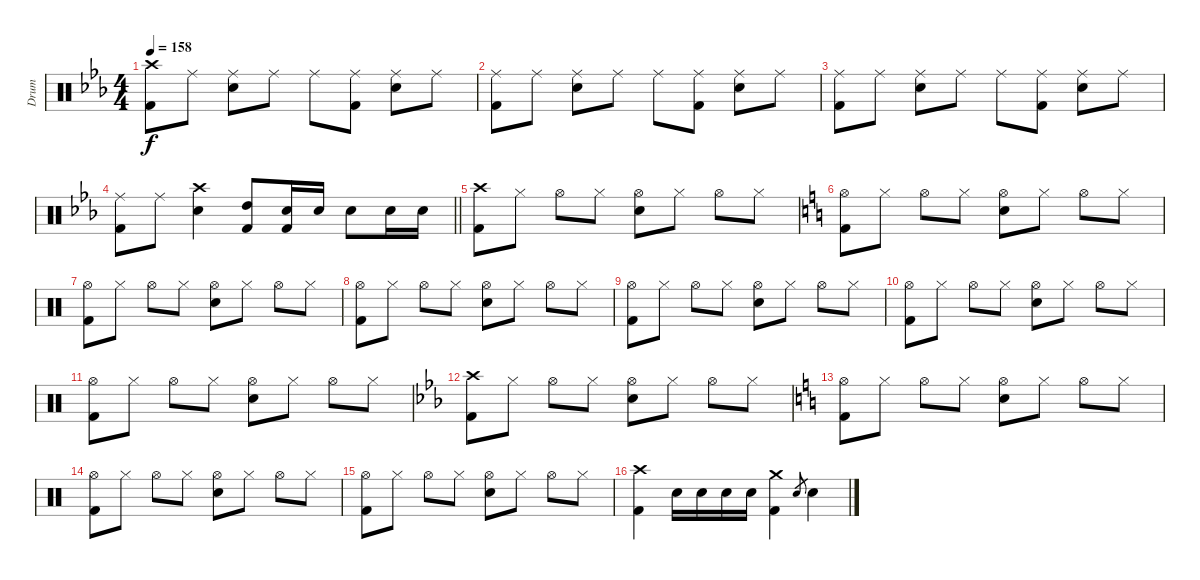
\track ("Drum" "Drum") {instrument percussion}
\staff {score}
\articulation defaults
\ts (4 4)
\tempo 158
\clef neutral
\ks eb
("Crash high (hit)" "Kick (hit) 2").8{dy f} "Ride (middle)".8 ("Ride (middle)" "Electric Snare (hit)").8 "Ride (middle)".8 "Ride (middle)".8 ("Ride (middle)" "Kick (hit) 2").8 ("Ride (middle)" "Electric Snare (hit)").8 "Ride (middle)".8 |
("Ride (middle)" "Kick (hit) 2").8 "Ride (middle)".8 ("Ride (middle)" "Electric Snare (hit)").8 "Ride (middle)".8 "Ride (middle)".8 ("Ride (middle)" "Kick (hit) 2").8 ("Ride (middle)" "Electric Snare (hit)").8 "Ride (middle)".8 |
("Ride (middle)" "Kick (hit) 2").8 "Ride (middle)".8 ("Ride (middle)" "Electric Snare (hit)").8 "Ride (middle)".8 "Ride (middle)".8 ("Ride (middle)" "Kick (hit) 2").8 ("Ride (middle)" "Electric Snare (hit)").8 "Ride (middle)".8 |
\barLineRight lightlight
("Ride (middle)" "Kick (hit) 2").8 "Ride (middle)".8 ("Crash high (hit)" "Electric Snare (hit)").4 ("High Tom (hit)" "Kick (hit) 2").8 ("Snare (hit) 2" "Kick (hit) 2").16 "Electric Snare (hit)".16 "Electric Snare (hit)".8 "Electric Snare (hit)".16 "Electric Snare (hit)".16 |
("Crash high (hit)" "Kick (hit) 2").8 "Hi-Hat (closed)".8 "Hi-Hat (open)".8 "Hi-Hat (closed)".8 ("Hi-Hat (open)" "Electric Snare (hit)").8 "Hi-Hat (closed)".8 "Hi-Hat (open)".8 "Hi-Hat (closed)".8 |
\ks c
("Hi-Hat (open)" "Kick (hit) 2").8 "Hi-Hat (closed)".8 "Hi-Hat (open)".8 "Hi-Hat (closed)".8 ("Hi-Hat (open)" "Electric Snare (hit)").8 "Hi-Hat (closed)".8 "Hi-Hat (open)".8 "Hi-Hat (closed)".8 |
("Hi-Hat (open)" "Kick (hit) 2").8 "Hi-Hat (closed)".8 "Hi-Hat (open)".8 "Hi-Hat (closed)".8 ("Hi-Hat (open)" "Electric Snare (hit)").8 "Hi-Hat (closed)".8 "Hi-Hat (open)".8 "Hi-Hat (closed)".8 |
("Hi-Hat (open)" "Kick (hit) 2").8 "Hi-Hat (closed)".8 "Hi-Hat (open)".8 "Hi-Hat (closed)".8 ("Hi-Hat (open)" "Electric Snare (hit)").8 "Hi-Hat (closed)".8 "Hi-Hat (open)".8 "Hi-Hat (closed)".8 |
("Hi-Hat (open)" "Kick (hit) 2").8 "Hi-Hat (closed)".8 "Hi-Hat (open)".8 "Hi-Hat (closed)".8 ("Hi-Hat (open)" "Electric Snare (hit)").8 "Hi-Hat (closed)".8 "Hi-Hat (open)".8 "Hi-Hat (closed)".8 |
("Hi-Hat (open)" "Kick (hit) 2").8 "Hi-Hat (closed)".8 "Hi-Hat (open)".8 "Hi-Hat (closed)".8 ("Hi-Hat (open)" "Electric Snare (hit)").8 "Hi-Hat (closed)".8 "Hi-Hat (open)".8 "Hi-Hat (closed)".8 |
("Hi-Hat (open)" "Kick (hit) 2").8 "Hi-Hat (closed)".8 "Hi-Hat (open)".8 "Hi-Hat (closed)".8 ("Hi-Hat (open)" "Electric Snare (hit)").8 "Hi-Hat (closed)".8 "Hi-Hat (open)".8 "Hi-Hat (closed)".8 |
\ks eb
("Crash high (hit)" "Kick (hit) 2").8 "Hi-Hat (closed)".8 "Hi-Hat (open)".8 "Hi-Hat (closed)".8 ("Hi-Hat (open)" "Electric Snare (hit)").8 "Hi-Hat (closed)".8 "Hi-Hat (open)".8 "Hi-Hat (closed)".8 |
\ks c
("Hi-Hat (open)" "Kick (hit) 2").8 "Hi-Hat (closed)".8 "Hi-Hat (open)".8 "Hi-Hat (closed)".8 ("Hi-Hat (open)" "Electric Snare (hit)").8 "Hi-Hat (closed)".8 "Hi-Hat (open)".8 "Hi-Hat (closed)".8 |
("Hi-Hat (open)" "Kick (hit) 2").8 "Hi-Hat (closed)".8 "Hi-Hat (open)".8 "Hi-Hat (closed)".8 ("Hi-Hat (open)" "Electric Snare (hit)").8 "Hi-Hat (closed)".8 "Hi-Hat (open)".8 "Hi-Hat (closed)".8 |
("Hi-Hat (open)" "Kick (hit) 2").8 "Hi-Hat (closed)".8 "Hi-Hat (open)".8 "Hi-Hat (closed)".8 ("Hi-Hat (open)" "Electric Snare (hit)").8 "Hi-Hat (closed)".8 "Hi-Hat (open)".8 "Hi-Hat (closed)".8 |
("Crash high (hit)" "Kick (hit) 2").4 "Snare (hit) 2".16 "Snare (hit) 2".16 "Snare (hit) 2".16 "Snare (hit) 2".16 ("Crash medium (hit)" "Kick (hit) 2").4 "Snare (hit) 2".8{gr} "Snare (hit) 2".4
